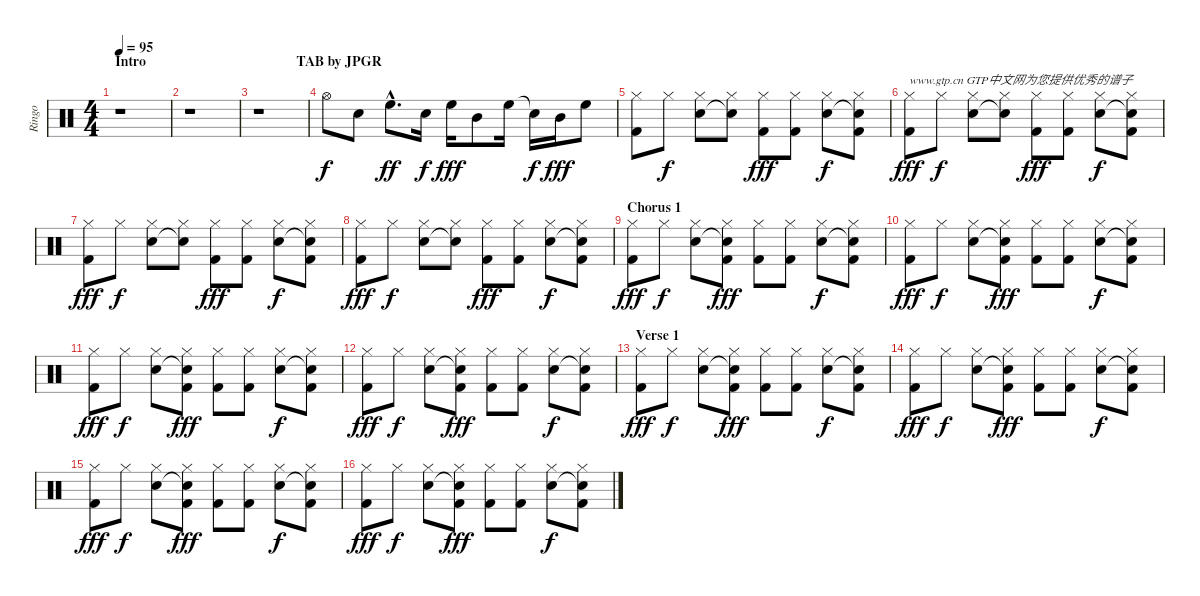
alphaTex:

\track ("Ringo" "Ringo") {instrument percussion}
\staff {score}
\articulation defaults
\ts (4 4)
\section ("" "Intro                                           TAB by JPGR")
\tempo 95
\clef neutral
\ks c
r.1{dy f} |
r.1 |
r.1 |
"Hi-Hat (open)".8 "Snare (hit) 2".8 "High Floor Tom (hit)"{hac}.8{d dy ff} "Snare (hit) 2".16{dy f} "High Floor Tom (hit)".16{dy fff} "Mid Tom (hit)".8 "High Floor Tom (hit)".16 "Snare (hit)"{t}.16{dy f} "Mid Tom (hit)".16{dy fff} "High Floor Tom (hit)".8 |
("Hi-Hat (closed)" "Kick (hit) 2").8 "Hi-Hat (closed)".8{dy f} ("Hi-Hat (closed)" "Snare (hit) 2").8 ("Hi-Hat (closed)" "Snare (hit)"{t}).8 ("Hi-Hat (closed)" "Kick (hit) 2").8{dy fff} ("Hi-Hat (closed)" "Kick (hit) 2").8 ("Hi-Hat (closed)" "Snare (hit) 2").8{dy f} ("Hi-Hat (closed)" "Snare (hit)"{t} "Kick (hit) 2").8 |
("Hi-Hat (closed)" "Kick (hit) 2").8{txt "www.gtp.cn GTP中文网为您提供优秀的谱子" dy fff} "Hi-Hat (closed)".8{dy f} ("Hi-Hat (closed)" "Snare (hit) 2").8 ("Hi-Hat (closed)" "Snare (hit)"{t}).8 ("Hi-Hat (closed)" "Kick (hit) 2").8{dy fff} ("Hi-Hat (closed)" "Kick (hit) 2").8 ("Hi-Hat (closed)" "Snare (hit) 2").8{dy f} ("Hi-Hat (closed)" "Snare (hit)"{t} "Kick (hit) 2").8 |
("Hi-Hat (closed)" "Kick (hit) 2").8{dy fff} "Hi-Hat (closed)".8{dy f} ("Hi-Hat (closed)" "Snare (hit) 2").8 ("Hi-Hat (closed)" "Snare (hit)"{t}).8 ("Hi-Hat (closed)" "Kick (hit) 2").8{dy fff} ("Hi-Hat (closed)" "Kick (hit) 2").8 ("Hi-Hat (closed)" "Snare (hit) 2").8{dy f} ("Hi-Hat (closed)" "Snare (hit)"{t} "Kick (hit) 2").8 |
("Hi-Hat (closed)" "Kick (hit) 2").8{dy fff} "Hi-Hat (closed)".8{dy f} ("Hi-Hat (closed)" "Snare (hit) 2").8 ("Hi-Hat (closed)" "Snare (hit)"{t}).8 ("Hi-Hat (closed)" "Kick (hit) 2").8{dy fff} ("Hi-Hat (closed)" "Kick (hit) 2").8 ("Hi-Hat (closed)" "Snare (hit) 2").8{dy f} ("Hi-Hat (closed)" "Snare (hit)"{t} "Kick (hit) 2").8 |
\section ("" "Chorus 1")
("Hi-Hat (closed)" "Kick (hit) 2").8{dy fff} "Hi-Hat (closed)".8{dy f} ("Hi-Hat (closed)" "Snare (hit) 2").8 ("Hi-Hat (closed)" "Snare (hit)"{t} "Kick (hit) 2").8{dy fff} ("Hi-Hat (closed)" "Kick (hit) 2").8 ("Hi-Hat (closed)" "Kick (hit) 2").8 ("Hi-Hat (closed)" "Snare (hit) 2").8{dy f} ("Hi-Hat (closed)" "Snare (hit)"{t} "Kick (hit) 2").8 |
("Hi-Hat (closed)" "Kick (hit) 2").8{dy fff} "Hi-Hat (closed)".8{dy f} ("Hi-Hat (closed)" "Snare (hit) 2").8 ("Hi-Hat (closed)" "Snare (hit)"{t} "Kick (hit) 2").8{dy fff} ("Hi-Hat (closed)" "Kick (hit) 2").8 ("Hi-Hat (closed)" "Kick (hit) 2").8 ("Hi-Hat (closed)" "Snare (hit) 2").8{dy f} ("Hi-Hat (closed)" "Snare (hit)"{t} "Kick (hit) 2").8 |
("Hi-Hat (closed)" "Kick (hit) 2").8{dy fff} "Hi-Hat (closed)".8{dy f} ("Hi-Hat (closed)" "Snare (hit) 2").8 ("Hi-Hat (closed)" "Snare (hit)"{t} "Kick (hit) 2").8{dy fff} ("Hi-Hat (closed)" "Kick (hit) 2").8 ("Hi-Hat (closed)" "Kick (hit) 2").8 ("Hi-Hat (closed)" "Snare (hit) 2").8{dy f} ("Hi-Hat (closed)" "Snare (hit)"{t} "Kick (hit) 2").8 |
("Hi-Hat (closed)" "Kick (hit) 2").8{dy fff} "Hi-Hat (closed)".8{dy f} ("Hi-Hat (closed)" "Snare (hit) 2").8 ("Hi-Hat (closed)" "Snare (hit)"{t} "Kick (hit) 2").8{dy fff} ("Hi-Hat (closed)" "Kick (hit) 2").8 ("Hi-Hat (closed)" "Kick (hit) 2").8 ("Hi-Hat (closed)" "Snare (hit) 2").8{dy f} ("Hi-Hat (closed)" "Snare (hit)"{t} "Kick (hit) 2").8 |
\section ("" "Verse 1")
("Hi-Hat (closed)" "Kick (hit) 2").8{dy fff} "Hi-Hat (closed)".8{dy f} ("Hi-Hat (closed)" "Snare (hit) 2").8 ("Hi-Hat (closed)" "Snare (hit)"{t} "Kick (hit) 2").8{dy fff} ("Hi-Hat (closed)" "Kick (hit) 2").8 ("Hi-Hat (closed)" "Kick (hit) 2").8 ("Hi-Hat (closed)" "Snare (hit) 2").8{dy f} ("Hi-Hat (closed)" "Snare (hit)"{t} "Kick (hit) 2").8 |
("Hi-Hat (closed)" "Kick (hit) 2").8{dy fff} "Hi-Hat (closed)".8{dy f} ("Hi-Hat (closed)" "Snare (hit) 2").8 ("Hi-Hat (closed)" "Snare (hit)"{t} "Kick (hit) 2").8{dy fff} ("Hi-Hat (closed)" "Kick (hit) 2").8 ("Hi-Hat (closed)" "Kick (hit) 2").8 ("Hi-Hat (closed)" "Snare (hit) 2").8{dy f} ("Hi-Hat (closed)" "Snare (hit)"{t} "Kick (hit) 2").8 |
("Hi-Hat (closed)" "Kick (hit) 2").8{dy fff} "Hi-Hat (closed)".8{dy f} ("Hi-Hat (closed)" "Snare (hit) 2").8 ("Hi-Hat (closed)" "Snare (hit)"{t} "Kick (hit) 2").8{dy fff} ("Hi-Hat (closed)" "Kick (hit) 2").8 ("Hi-Hat (closed)" "Kick (hit) 2").8 ("Hi-Hat (closed)" "Snare (hit) 2").8{dy f} ("Hi-Hat (closed)" "Snare (hit)"{t} "Kick (hit) 2").8 |
("Hi-Hat (closed)" "Kick (hit) 2").8{dy fff} "Hi-Hat (closed)".8{dy f} ("Hi-Hat (closed)" "Snare (hit) 2").8 ("Hi-Hat (closed)" "Snare (hit)"{t} "Kick (hit) 2").8{dy fff} ("Hi-Hat (closed)" "Kick (hit) 2").8 ("Hi-Hat (closed)" "Kick (hit) 2").8 ("Hi-Hat (closed)" "Snare (hit) 2").8{dy f} ("Hi-Hat (closed)" "Snare (hit)"{t} "Kick (hit) 2").8
